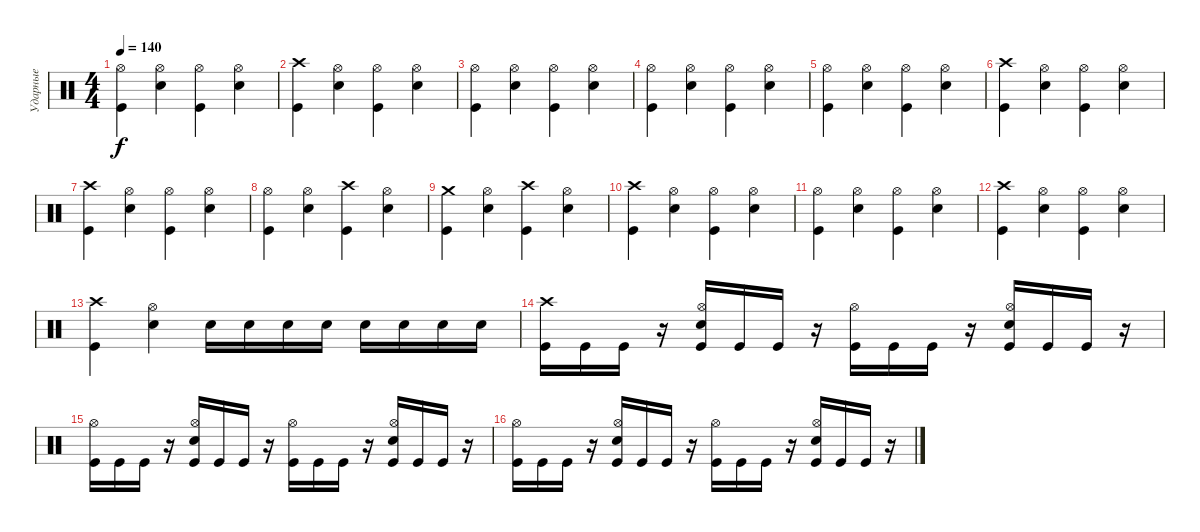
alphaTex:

\track ("Ударные" "Ударные") {instrument percussion}
\staff {score}
\articulation defaults
\ts (4 4)
\tempo 140
\clef neutral
\ks c
("Kick (hit)" "Hi-Hat (open)").4{dy f} ("Snare (hit) 2" "Hi-Hat (open)").4 ("Kick (hit)" "Hi-Hat (open)").4 ("Snare (hit) 2" "Hi-Hat (open)").4 |
("Kick (hit)" "Crash high (hit)").4 ("Snare (hit) 2" "Hi-Hat (open)").4 ("Kick (hit)" "Hi-Hat (open)").4 ("Snare (hit) 2" "Hi-Hat (open)").4 |
("Kick (hit)" "Hi-Hat (open)").4 ("Snare (hit) 2" "Hi-Hat (open)").4 ("Kick (hit)" "Hi-Hat (open)").4 ("Snare (hit) 2" "Hi-Hat (open)").4 |
("Kick (hit)" "Hi-Hat (open)").4 ("Snare (hit) 2" "Hi-Hat (open)").4 ("Kick (hit)" "Hi-Hat (open)").4 ("Snare (hit) 2" "Hi-Hat (open)").4 |
("Kick (hit)" "Hi-Hat (open)").4 ("Snare (hit) 2" "Hi-Hat (open)").4 ("Kick (hit)" "Hi-Hat (open)").4 ("Snare (hit) 2" "Hi-Hat (open)").4 |
("Kick (hit)" "Crash high (hit)").4 ("Snare (hit) 2" "Hi-Hat (open)").4 ("Kick (hit)" "Hi-Hat (open)").4 ("Snare (hit) 2" "Hi-Hat (open)").4 |
("Kick (hit)" "Crash high (hit)").4 ("Snare (hit) 2" "Hi-Hat (open)").4 ("Kick (hit)" "Hi-Hat (open)").4 ("Snare (hit) 2" "Hi-Hat (open)").4 |
("Kick (hit)" "Hi-Hat (open)").4 ("Snare (hit) 2" "Hi-Hat (open)").4 ("Kick (hit)" "Crash high (hit)").4 ("Snare (hit) 2" "Hi-Hat (open)").4 |
("Kick (hit)" "Crash medium (hit)").4 ("Snare (hit) 2" "Hi-Hat (open)").4 ("Kick (hit)" "Crash high (hit)").4 ("Snare (hit) 2" "Hi-Hat (open)").4 |
("Kick (hit)" "Crash high (hit)").4 ("Snare (hit) 2" "Hi-Hat (open)").4 ("Kick (hit)" "Hi-Hat (open)").4 ("Snare (hit) 2" "Hi-Hat (open)").4 |
("Kick (hit)" "Hi-Hat (open)").4 ("Snare (hit) 2" "Hi-Hat (open)").4 ("Kick (hit)" "Hi-Hat (open)").4 ("Snare (hit) 2" "Hi-Hat (open)").4 |
("Kick (hit)" "Crash high (hit)").4 ("Snare (hit) 2" "Hi-Hat (open)").4 ("Kick (hit)" "Hi-Hat (open)").4 ("Snare (hit) 2" "Hi-Hat (open)").4 |
("Kick (hit)" "Crash high (hit)").4 ("Snare (hit) 2" "Hi-Hat (open)").4 "Snare (hit) 2".16 "Snare (hit) 2".16 "Snare (hit) 2".16 "Snare (hit) 2".16 "Snare (hit) 2".16 "Snare (hit) 2".16 "Snare (hit) 2".16 "Snare (hit) 2".16 |
("Kick (hit)" "Crash high (hit)").16 "Kick (hit)".16 "Kick (hit)".16 r.16 ("Kick (hit)" "Snare (hit) 2" "Hi-Hat (open)").16 "Kick (hit)".16 "Kick (hit)".16 r.16 ("Kick (hit)" "Hi-Hat (open)").16 "Kick (hit)".16 "Kick (hit)".16 r.16 ("Kick (hit)" "Snare (hit) 2" "Hi-Hat (open)").16 "Kick (hit)".16 "Kick (hit)".16 r.16 |
("Kick (hit)" "Hi-Hat (open)").16 "Kick (hit)".16 "Kick (hit)".16 r.16 ("Kick (hit)" "Snare (hit) 2" "Hi-Hat (open)").16 "Kick (hit)".16 "Kick (hit)".16 r.16 ("Kick (hit)" "Hi-Hat (open)").16 "Kick (hit)".16 "Kick (hit)".16 r.16 ("Kick (hit)" "Snare (hit) 2" "Hi-Hat (open)").16 "Kick (hit)".16 "Kick (hit)".16 r.16 |
("Kick (hit)" "Hi-Hat (open)").16 "Kick (hit)".16 "Kick (hit)".16 r.16 ("Kick (hit)" "Snare (hit) 2" "Hi-Hat (open)").16 "Kick (hit)".16 "Kick (hit)".16 r.16 ("Kick (hit)" "Hi-Hat (open)").16 "Kick (hit)".16 "Kick (hit)".16 r.16 ("Kick (hit)" "Snare (hit) 2" "Hi-Hat (open)").16 "Kick (hit)".16 "Kick (hit)".16 r.16
